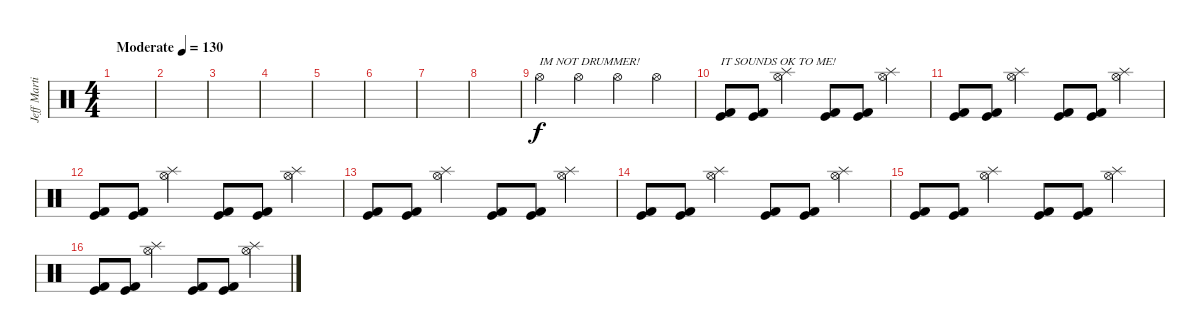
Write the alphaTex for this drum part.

\track ("Jeff Martin" "Jeff Marti") {instrument percussion}
\staff {score}
\articulation defaults
\ts (4 4)
\tempo (130 "Moderate")
\clef neutral
\ks c
|
|
|
|
|
|
|
|
"Hi-Hat (open)".4{txt "IM NOT DRUMMER!"} "Hi-Hat (open)".4 "Hi-Hat (open)".4 "Hi-Hat (open)".4 |
("Kick (hit) 2" "Kick (hit)").8{txt "IT SOUNDS OK TO ME!"} ("Kick (hit) 2" "Kick (hit)").8 ("Splash (hit)" "Hi-Hat (open)").4 ("Kick (hit) 2" "Kick (hit)").8 ("Kick (hit) 2" "Kick (hit)").8 ("Splash (hit)" "Hi-Hat (open)").4 |
("Kick (hit) 2" "Kick (hit)").8 ("Kick (hit) 2" "Kick (hit)").8 ("Splash (hit)" "Hi-Hat (open)").4 ("Kick (hit) 2" "Kick (hit)").8 ("Kick (hit) 2" "Kick (hit)").8 ("Splash (hit)" "Hi-Hat (open)").4 |
("Kick (hit) 2" "Kick (hit)").8 ("Kick (hit) 2" "Kick (hit)").8 ("Splash (hit)" "Hi-Hat (open)").4 ("Kick (hit) 2" "Kick (hit)").8 ("Kick (hit) 2" "Kick (hit)").8 ("Splash (hit)" "Hi-Hat (open)").4 |
("Kick (hit) 2" "Kick (hit)").8 ("Kick (hit) 2" "Kick (hit)").8 ("Splash (hit)" "Hi-Hat (open)").4 ("Kick (hit) 2" "Kick (hit)").8 ("Kick (hit) 2" "Kick (hit)").8 ("Splash (hit)" "Hi-Hat (open)").4 |
("Kick (hit) 2" "Kick (hit)").8 ("Kick (hit) 2" "Kick (hit)").8 ("Splash (hit)" "Hi-Hat (open)").4 ("Kick (hit) 2" "Kick (hit)").8 ("Kick (hit) 2" "Kick (hit)").8 ("Splash (hit)" "Hi-Hat (open)").4 |
("Kick (hit) 2" "Kick (hit)").8 ("Kick (hit) 2" "Kick (hit)").8 ("Splash (hit)" "Hi-Hat (open)").4 ("Kick (hit) 2" "Kick (hit)").8 ("Kick (hit) 2" "Kick (hit)").8 ("Splash (hit)" "Hi-Hat (open)").4 |
("Kick (hit) 2" "Kick (hit)").8 ("Kick (hit) 2" "Kick (hit)").8 ("Splash (hit)" "Hi-Hat (open)").4 ("Kick (hit) 2" "Kick (hit)").8 ("Kick (hit) 2" "Kick (hit)").8 ("Splash (hit)" "Hi-Hat (open)").4
